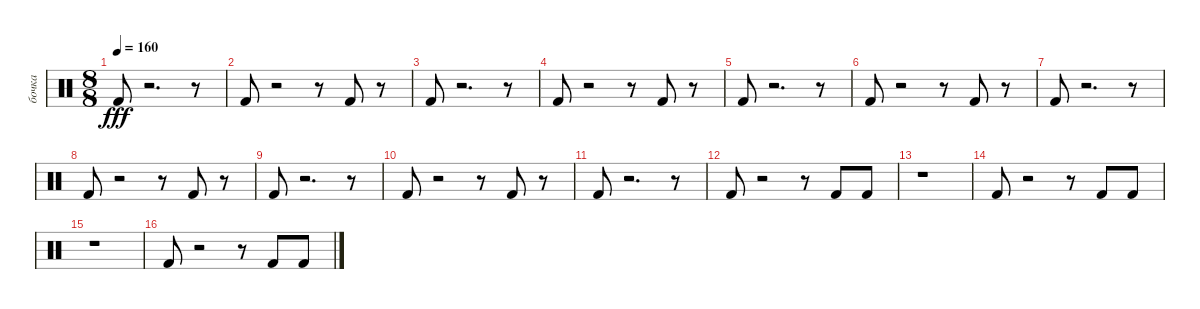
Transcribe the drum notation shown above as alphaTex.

\track ("бочка" "бочка") {instrument percussion}
\staff {score}
\articulation defaults
\ts (8 8)
\tempo 160
\clef neutral
\ks c "Kick (hit) 2".8{dy fff}
r.2{d} r.8 |
"Kick (hit) 2".8 r.2 r.8 "Kick (hit) 2".8 r.8 |
"Kick (hit) 2".8 r.2{d} r.8 |
"Kick (hit) 2".8 r.2 r.8 "Kick (hit) 2".8 r.8 |
"Kick (hit) 2".8 r.2{d} r.8 |
"Kick (hit) 2".8 r.2 r.8 "Kick (hit) 2".8 r.8 |
"Kick (hit) 2".8 r.2{d} r.8 |
"Kick (hit) 2".8 r.2 r.8 "Kick (hit) 2".8 r.8 |
"Kick (hit) 2".8 r.2{d} r.8 |
"Kick (hit) 2".8 r.2 r.8 "Kick (hit) 2".8 r.8 |
"Kick (hit) 2".8 r.2{d} r.8 |
"Kick (hit) 2".8 r.2 r.8 "Kick (hit) 2".8 "Kick (hit) 2".8 |
r.1 |
"Kick (hit) 2".8 r.2 r.8 "Kick (hit) 2".8 "Kick (hit) 2".8 |
r.1 |
"Kick (hit) 2".8 r.2 r.8 "Kick (hit) 2".8 "Kick (hit) 2".8
